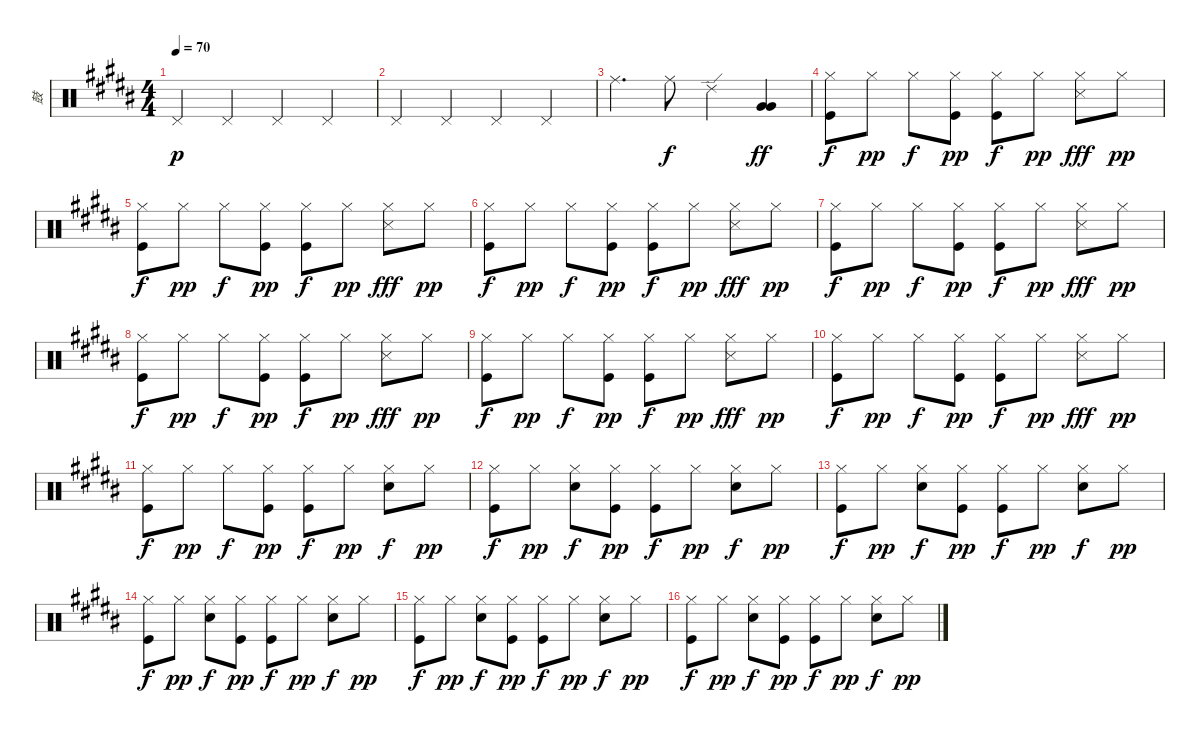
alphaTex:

\track ("鼓" "鼓") {instrument percussion}
\staff {score}
\articulation defaults
\ts (4 4)
\tempo 70
\clef neutral
\ks b "Pedal Hi-Hat (hit)".4{dy p} "Pedal Hi-Hat (hit)".4 "Pedal Hi-Hat (hit)".4 "Pedal Hi-Hat (hit)".4
|
"Pedal Hi-Hat (hit)".4 "Pedal Hi-Hat (hit)".4 "Pedal Hi-Hat (hit)".4 "Pedal Hi-Hat (hit)".4 |
"Ride (middle)".4{d} "Ride (middle)".8{dy f} "Ride (edge) 2".4 ("Very Low Tom (hit)" "Very Low Tom (hit)").4{dy ff} |
("Hi-Hat (closed)" "Kick (hit)").8{dy f} "Hi-Hat (closed)".8{dy pp} "Hi-Hat (closed)".8{dy f} ("Hi-Hat (closed)" "Kick (hit)").8{dy pp} ("Hi-Hat (closed)" "Kick (hit)").8{dy f} "Hi-Hat (closed)".8{dy pp} ("Hi-Hat (closed)" "Snare (side stick) 3").8{dy fff} "Hi-Hat (closed)".8{dy pp} |
("Hi-Hat (closed)" "Kick (hit)").8{dy f} "Hi-Hat (closed)".8{dy pp} "Hi-Hat (closed)".8{dy f} ("Hi-Hat (closed)" "Kick (hit)").8{dy pp} ("Hi-Hat (closed)" "Kick (hit)").8{dy f} "Hi-Hat (closed)".8{dy pp} ("Hi-Hat (closed)" "Snare (side stick) 3").8{dy fff} "Hi-Hat (closed)".8{dy pp} |
("Hi-Hat (closed)" "Kick (hit)").8{dy f} "Hi-Hat (closed)".8{dy pp} "Hi-Hat (closed)".8{dy f} ("Hi-Hat (closed)" "Kick (hit)").8{dy pp} ("Hi-Hat (closed)" "Kick (hit)").8{dy f} "Hi-Hat (closed)".8{dy pp} ("Hi-Hat (closed)" "Snare (side stick) 3").8{dy fff} "Hi-Hat (closed)".8{dy pp} |
("Hi-Hat (closed)" "Kick (hit)").8{dy f} "Hi-Hat (closed)".8{dy pp} "Hi-Hat (closed)".8{dy f} ("Hi-Hat (closed)" "Kick (hit)").8{dy pp} ("Hi-Hat (closed)" "Kick (hit)").8{dy f} "Hi-Hat (closed)".8{dy pp} ("Hi-Hat (closed)" "Snare (side stick) 3").8{dy fff} "Hi-Hat (closed)".8{dy pp} |
("Hi-Hat (closed)" "Kick (hit)").8{dy f} "Hi-Hat (closed)".8{dy pp} "Hi-Hat (closed)".8{dy f} ("Hi-Hat (closed)" "Kick (hit)").8{dy pp} ("Hi-Hat (closed)" "Kick (hit)").8{dy f} "Hi-Hat (closed)".8{dy pp} ("Hi-Hat (closed)" "Snare (side stick) 3").8{dy fff} "Hi-Hat (closed)".8{dy pp} |
("Hi-Hat (closed)" "Kick (hit)").8{dy f} "Hi-Hat (closed)".8{dy pp} "Hi-Hat (closed)".8{dy f} ("Hi-Hat (closed)" "Kick (hit)").8{dy pp} ("Hi-Hat (closed)" "Kick (hit)").8{dy f} "Hi-Hat (closed)".8{dy pp} ("Hi-Hat (closed)" "Snare (side stick) 3").8{dy fff} "Hi-Hat (closed)".8{dy pp} |
("Hi-Hat (closed)" "Kick (hit)").8{dy f} "Hi-Hat (closed)".8{dy pp} "Hi-Hat (closed)".8{dy f} ("Hi-Hat (closed)" "Kick (hit)").8{dy pp} ("Hi-Hat (closed)" "Kick (hit)").8{dy f} "Hi-Hat (closed)".8{dy pp} ("Hi-Hat (closed)" "Snare (side stick) 3").8{dy fff} "Hi-Hat (closed)".8{dy pp} |
("Hi-Hat (closed)" "Kick (hit)").8{dy f} "Hi-Hat (closed)".8{dy pp} "Hi-Hat (closed)".8{dy f} ("Hi-Hat (closed)" "Kick (hit)").8{dy pp} ("Hi-Hat (closed)" "Kick (hit)").8{dy f} "Hi-Hat (closed)".8{dy pp} ("Hi-Hat (closed)" "Electric Snare (hit)").8{dy f} "Hi-Hat (closed)".8{dy pp} |
("Hi-Hat (closed)" "Kick (hit)").8{dy f} "Hi-Hat (closed)".8{dy pp} ("Hi-Hat (closed)" "Electric Snare (hit)").8{dy f} ("Hi-Hat (closed)" "Kick (hit)").8{dy pp} ("Hi-Hat (closed)" "Kick (hit)").8{dy f} "Hi-Hat (closed)".8{dy pp} ("Hi-Hat (closed)" "Electric Snare (hit)").8{dy f} "Hi-Hat (closed)".8{dy pp} |
("Hi-Hat (closed)" "Kick (hit)").8{dy f} "Hi-Hat (closed)".8{dy pp} ("Hi-Hat (closed)" "Electric Snare (hit)").8{dy f} ("Hi-Hat (closed)" "Kick (hit)").8{dy pp} ("Hi-Hat (closed)" "Kick (hit)").8{dy f} "Hi-Hat (closed)".8{dy pp} ("Hi-Hat (closed)" "Electric Snare (hit)").8{dy f} "Hi-Hat (closed)".8{dy pp} |
("Hi-Hat (closed)" "Kick (hit)").8{dy f} "Hi-Hat (closed)".8{dy pp} ("Hi-Hat (closed)" "Electric Snare (hit)").8{dy f} ("Hi-Hat (closed)" "Kick (hit)").8{dy pp} ("Hi-Hat (closed)" "Kick (hit)").8{dy f} "Hi-Hat (closed)".8{dy pp} ("Hi-Hat (closed)" "Electric Snare (hit)").8{dy f} "Hi-Hat (closed)".8{dy pp} |
("Hi-Hat (closed)" "Kick (hit)").8{dy f} "Hi-Hat (closed)".8{dy pp} ("Hi-Hat (closed)" "Electric Snare (hit)").8{dy f} ("Hi-Hat (closed)" "Kick (hit)").8{dy pp} ("Hi-Hat (closed)" "Kick (hit)").8{dy f} "Hi-Hat (closed)".8{dy pp} ("Hi-Hat (closed)" "Electric Snare (hit)").8{dy f} "Hi-Hat (closed)".8{dy pp} |
("Hi-Hat (closed)" "Kick (hit)").8{dy f} "Hi-Hat (closed)".8{dy pp} ("Hi-Hat (closed)" "Electric Snare (hit)").8{dy f} ("Hi-Hat (closed)" "Kick (hit)").8{dy pp} ("Hi-Hat (closed)" "Kick (hit)").8{dy f} "Hi-Hat (closed)".8{dy pp} ("Hi-Hat (closed)" "Electric Snare (hit)").8{dy f} "Hi-Hat (closed)".8{dy pp}
